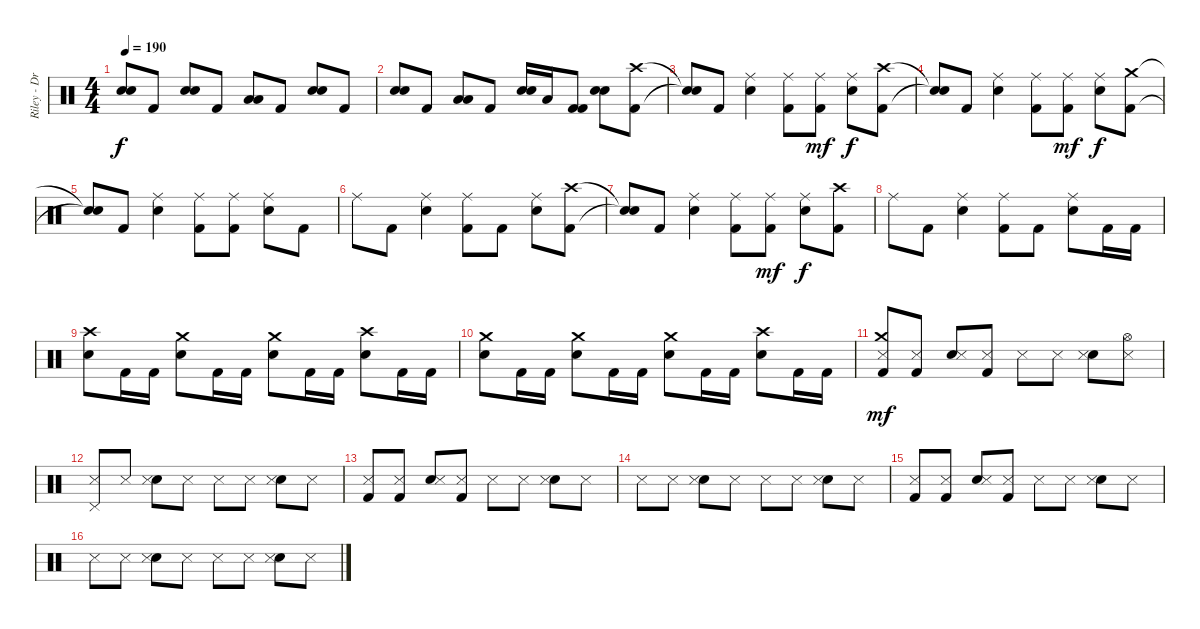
\track ("Riley - Drums" "Riley - Dr") {instrument percussion}
\staff {score}
\articulation defaults
\ts (4 4)
\tempo 190
\clef neutral
\ks c
("Snare (hit)"{t} "Snare (hit)"{t}).8{dy f} "Kick (hit) 2".8 ("Electric Snare (hit)" "Electric Snare (hit)").8 "Kick (hit) 2".8 ("Low Tom (hit)" "Low Tom (hit)").8 "Kick (hit) 2".8 ("Electric Snare (hit)" "Electric Snare (hit)").8 "Kick (hit) 2".8 |
("Electric Snare (hit)" "Electric Snare (hit)").8 "Kick (hit) 2".8 ("Low Tom (hit)" "Low Tom (hit)").8 "Kick (hit) 2".8 ("Electric Snare (hit)" "Electric Snare (hit)").16 "Low Tom (hit)".16 ("Kick (hit) 2" "Kick (hit) 2").8 ("Electric Snare (hit)" "Electric Snare (hit)").8 ("Kick (hit) 2" "Crash high (hit)").8 |
("Snare (hit)"{t} "Snare (hit)"{t}).8 "Kick (hit) 2".8 ("Electric Snare (hit)" "Ride (middle)").4 ("Kick (hit) 2" "Ride (middle)").8 ("Kick (hit) 2" "Ride (middle)").8{dy mf} ("Electric Snare (hit)" "Ride (middle)").8{dy f} ("Kick (hit) 2" "Crash high (hit)").8 |
("Snare (hit)"{t} "Snare (hit)"{t}).8 "Kick (hit) 2".8 ("Electric Snare (hit)" "Ride (middle)").4 ("Kick (hit) 2" "Ride (middle)").8 ("Kick (hit) 2" "Ride (middle)").8{dy mf} ("Electric Snare (hit)" "Ride (middle)").8{dy f} ("Kick (hit) 2" "Crash medium (hit)").8 |
("Snare (hit)"{t} "Snare (hit)"{t}).8 "Kick (hit) 2".8 ("Electric Snare (hit)" "Ride (middle)").4 ("Kick (hit) 2" "Ride (middle)").8 ("Kick (hit) 2" "Ride (middle)").8 ("Electric Snare (hit)" "Ride (middle)").8 "Kick (hit) 2".8 |
"Ride (middle)".8 "Kick (hit) 2".8 ("Electric Snare (hit)" "Ride (middle)").4 ("Kick (hit) 2" "Ride (middle)").8 "Kick (hit) 2".8 ("Electric Snare (hit)" "Ride (middle)").8 ("Kick (hit) 2" "Crash high (hit)").8 |
("Snare (hit)"{t} "Snare (hit)"{t}).8 "Kick (hit) 2".8 ("Electric Snare (hit)" "Ride (middle)").4 ("Kick (hit) 2" "Ride (middle)").8 ("Kick (hit) 2" "Ride (middle)").8{dy mf} ("Electric Snare (hit)" "Ride (middle)").8{dy f} ("Kick (hit) 2" "Crash high (hit)").8 |
"Ride (middle)".8 "Kick (hit) 2".8 ("Electric Snare (hit)" "Ride (middle)").4 ("Kick (hit) 2" "Ride (middle)").8 "Kick (hit) 2".8 ("Electric Snare (hit)" "Ride (middle)").8 "Kick (hit) 2".16 "Kick (hit) 2".16 |
("Electric Snare (hit)" "Crash high (hit)").8 "Kick (hit) 2".16 "Kick (hit) 2".16 ("Electric Snare (hit)" "Crash medium (hit)").8 "Kick (hit) 2".16 "Kick (hit) 2".16 ("Electric Snare (hit)" "Crash medium (hit)").8 "Kick (hit) 2".16 "Kick (hit) 2".16 ("Electric Snare (hit)" "Crash high (hit)").8 "Kick (hit) 2".16 "Kick (hit) 2".16 |
("Electric Snare (hit)" "Crash medium (hit)").8 "Kick (hit) 2".16 "Kick (hit) 2".16 ("Electric Snare (hit)" "Crash medium (hit)").8 "Kick (hit) 2".16 "Kick (hit) 2".16 ("Electric Snare (hit)" "Crash medium (hit)").8 "Kick (hit) 2".16 "Kick (hit) 2".16 ("Electric Snare (hit)" "Crash high (hit)").8 "Kick (hit) 2".16 "Kick (hit) 2".16 |
("Kick (hit) 2" "Snare (side stick) 3" "Crash medium (hit)").8{dy mf} ("Kick (hit) 2" "Snare (side stick) 3").8 ("Electric Snare (hit)" "Snare (side stick) 3").8 ("Kick (hit) 2" "Snare (side stick) 3").8 "Snare (side stick) 3".8 "Snare (side stick) 3".8 ("Electric Snare (hit)" "Snare (side stick) 3").8 ("Snare (side stick) 3" "Hi-Hat (open)").8 |
("Snare (side stick) 3" "Pedal Hi-Hat (hit)").8 "Snare (side stick) 3".8 ("Electric Snare (hit)" "Snare (side stick) 3").8 "Snare (side stick) 3".8 "Snare (side stick) 3".8 "Snare (side stick) 3".8 ("Electric Snare (hit)" "Snare (side stick) 3").8 "Snare (side stick) 3".8 |
("Kick (hit) 2" "Snare (side stick) 3").8 ("Kick (hit) 2" "Snare (side stick) 3").8 ("Electric Snare (hit)" "Snare (side stick) 3").8 ("Kick (hit) 2" "Snare (side stick) 3").8 "Snare (side stick) 3".8 "Snare (side stick) 3".8 ("Electric Snare (hit)" "Snare (side stick) 3").8 "Snare (side stick) 3".8 |
"Snare (side stick) 3".8 "Snare (side stick) 3".8 ("Electric Snare (hit)" "Snare (side stick) 3").8 "Snare (side stick) 3".8 "Snare (side stick) 3".8 "Snare (side stick) 3".8 ("Electric Snare (hit)" "Snare (side stick) 3").8 "Snare (side stick) 3".8 |
("Kick (hit) 2" "Snare (side stick) 3").8 ("Kick (hit) 2" "Snare (side stick) 3").8 ("Electric Snare (hit)" "Snare (side stick) 3").8 ("Kick (hit) 2" "Snare (side stick) 3").8 "Snare (side stick) 3".8 "Snare (side stick) 3".8 ("Electric Snare (hit)" "Snare (side stick) 3").8 "Snare (side stick) 3".8 |
"Snare (side stick) 3".8 "Snare (side stick) 3".8 ("Electric Snare (hit)" "Snare (side stick) 3").8 "Snare (side stick) 3".8 "Snare (side stick) 3".8 "Snare (side stick) 3".8 ("Electric Snare (hit)" "Snare (side stick) 3").8 "Snare (side stick) 3".8
